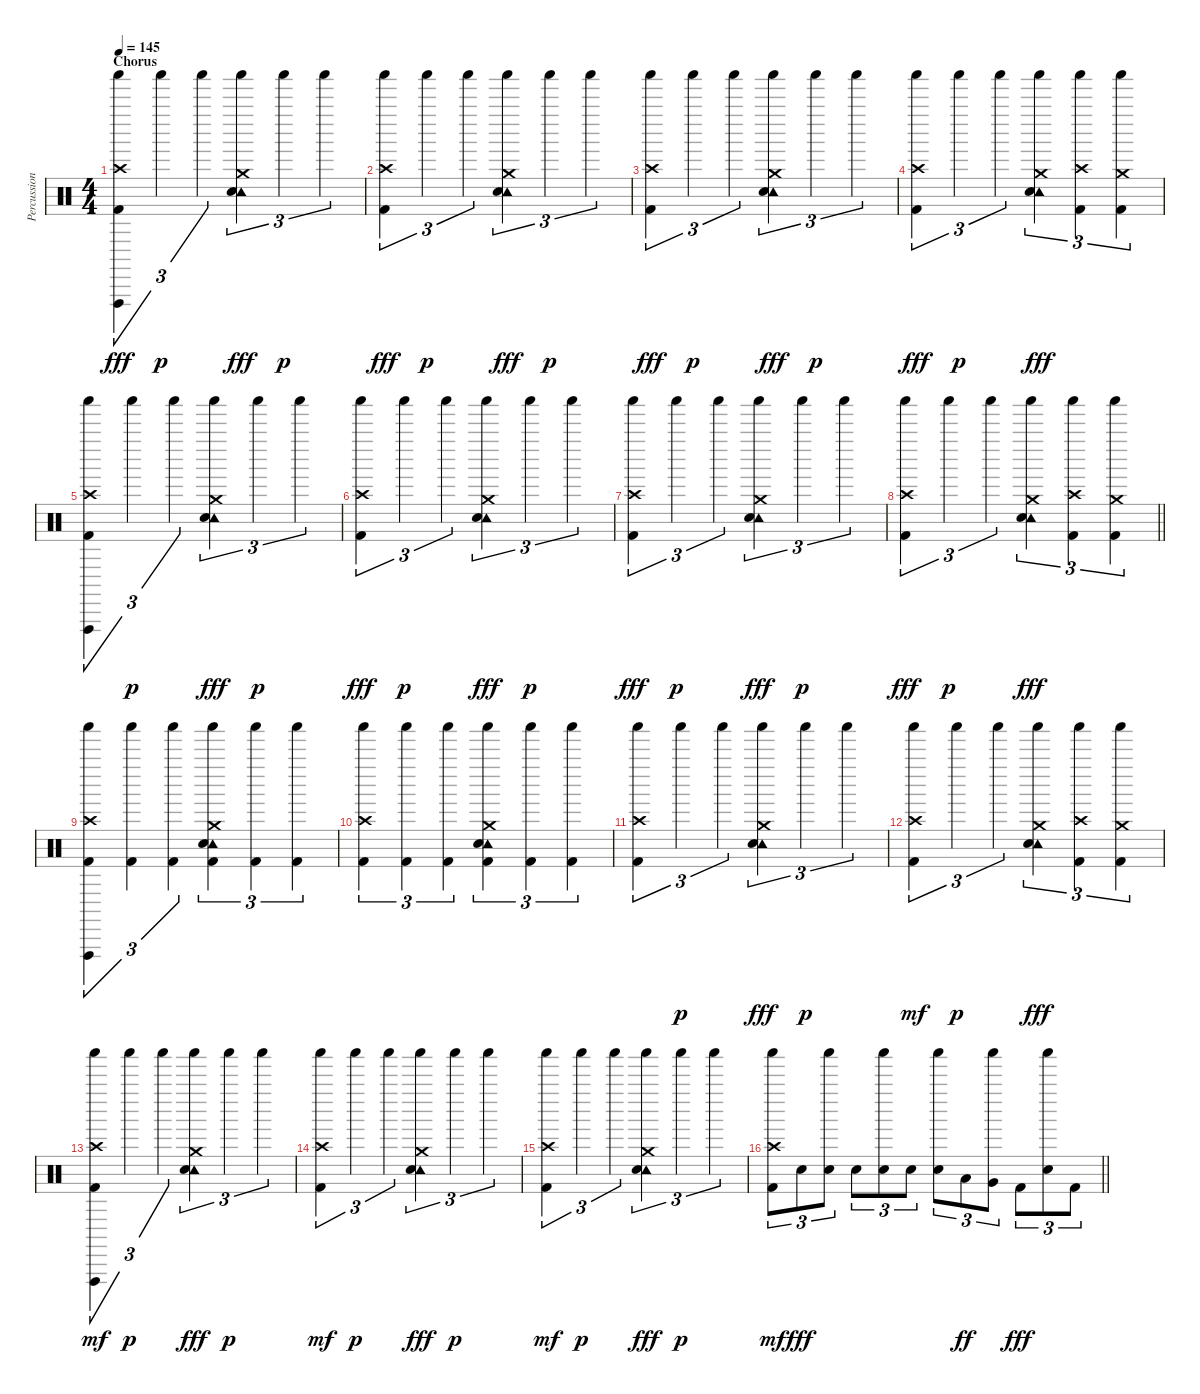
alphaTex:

\track ("Percussion" "Percussion") {instrument percussion}
\staff {score}
\articulation defaults
\ts (4 4)
\section ("" "Chorus")
\tempo 145
\clef neutral
\ks c
("Shaker (hit)" "Crash high (hit)" "Vibraslap (hit)" "Kick (hit) 2").4{tu (3 2) dy fff} "Shaker (hit)".4{tu (3 2) dy p} "Shaker (hit)".4{tu (3 2)} ("Shaker (hit)" "Crash medium (hit)" "Tambourine (hit)" "Electric Snare (hit)").4{tu (3 2) dy fff} "Shaker (hit)".4{tu (3 2) dy p} "Shaker (hit)".4{tu (3 2)} |
("Shaker (hit)" "Crash high (hit)" "Kick (hit) 2").4{tu (3 2) dy fff} "Shaker (hit)".4{tu (3 2) dy p} "Shaker (hit)".4{tu (3 2)} ("Shaker (hit)" "Crash medium (hit)" "Tambourine (hit)" "Electric Snare (hit)").4{tu (3 2) dy fff} "Shaker (hit)".4{tu (3 2) dy p} "Shaker (hit)".4{tu (3 2)} |
("Shaker (hit)" "Crash high (hit)" "Kick (hit) 2").4{tu (3 2) dy fff} "Shaker (hit)".4{tu (3 2) dy p} "Shaker (hit)".4{tu (3 2)} ("Shaker (hit)" "Crash medium (hit)" "Tambourine (hit)" "Electric Snare (hit)").4{tu (3 2) dy fff} "Shaker (hit)".4{tu (3 2) dy p} "Shaker (hit)".4{tu (3 2)} |
("Shaker (hit)" "Crash high (hit)" "Kick (hit) 2").4{tu (3 2) dy fff} "Shaker (hit)".4{tu (3 2) dy p} "Shaker (hit)".4{tu (3 2)} ("Shaker (hit)" "Crash medium (hit)" "Tambourine (hit)" "Electric Snare (hit)").4{tu (3 2) dy fff} ("Shaker (hit)" "Crash high (hit)" "Kick (hit) 2").4{tu (3 2)} ("Shaker (hit)" "Crash medium (hit)" "Kick (hit) 2").4{tu (3 2)} |
("Shaker (hit)" "Crash high (hit)" "Vibraslap (hit)" "Kick (hit) 2").4{tu (3 2)} "Shaker (hit)".4{tu (3 2) dy p} "Shaker (hit)".4{tu (3 2)} ("Shaker (hit)" "Crash medium (hit)" "Tambourine (hit)" "Electric Snare (hit)").4{tu (3 2) dy fff} "Shaker (hit)".4{tu (3 2) dy p} "Shaker (hit)".4{tu (3 2)} |
("Shaker (hit)" "Crash high (hit)" "Kick (hit) 2").4{tu (3 2) dy fff} "Shaker (hit)".4{tu (3 2) dy p} "Shaker (hit)".4{tu (3 2)} ("Shaker (hit)" "Crash medium (hit)" "Tambourine (hit)" "Electric Snare (hit)").4{tu (3 2) dy fff} "Shaker (hit)".4{tu (3 2) dy p} "Shaker (hit)".4{tu (3 2)} |
("Shaker (hit)" "Crash high (hit)" "Kick (hit) 2").4{tu (3 2) dy fff} "Shaker (hit)".4{tu (3 2) dy p} "Shaker (hit)".4{tu (3 2)} ("Shaker (hit)" "Crash medium (hit)" "Tambourine (hit)" "Electric Snare (hit)").4{tu (3 2) dy fff} "Shaker (hit)".4{tu (3 2) dy p} "Shaker (hit)".4{tu (3 2)} |
\barLineRight lightlight
("Shaker (hit)" "Crash high (hit)" "Kick (hit) 2").4{tu (3 2) dy fff} "Shaker (hit)".4{tu (3 2) dy p} "Shaker (hit)".4{tu (3 2)} ("Shaker (hit)" "Crash medium (hit)" "Tambourine (hit)" "Electric Snare (hit)").4{tu (3 2) dy fff} ("Shaker (hit)" "Crash high (hit)" "Kick (hit) 2").4{tu (3 2)} ("Shaker (hit)" "Crash medium (hit)" "Kick (hit) 2").4{tu (3 2)} |
("Shaker (hit)" "Crash high (hit)" "Vibraslap (hit)" "Kick (hit) 2").4{tu (3 2)} ("Shaker (hit)" "Kick (hit) 2").4{tu (3 2)} ("Shaker (hit)" "Kick (hit) 2").4{tu (3 2)} ("Shaker (hit)" "Crash medium (hit)" "Tambourine (hit)" "Electric Snare (hit)" "Kick (hit) 2").4{tu (3 2)} ("Shaker (hit)" "Kick (hit) 2").4{tu (3 2)} ("Shaker (hit)" "Kick (hit) 2").4{tu (3 2)} |
("Shaker (hit)" "Crash high (hit)" "Kick (hit) 2").4{tu (3 2)} ("Shaker (hit)" "Kick (hit) 2").4{tu (3 2)} ("Shaker (hit)" "Kick (hit) 2").4{tu (3 2)} ("Shaker (hit)" "Crash medium (hit)" "Tambourine (hit)" "Electric Snare (hit)" "Kick (hit) 2").4{tu (3 2)} ("Shaker (hit)" "Kick (hit) 2").4{tu (3 2)} ("Shaker (hit)" "Kick (hit) 2").4{tu (3 2)} |
("Shaker (hit)" "Crash high (hit)" "Kick (hit) 2").4{tu (3 2)} "Shaker (hit)".4{tu (3 2) dy p} "Shaker (hit)".4{tu (3 2)} ("Shaker (hit)" "Crash medium (hit)" "Tambourine (hit)" "Electric Snare (hit)").4{tu (3 2) dy fff} "Shaker (hit)".4{tu (3 2) dy p} "Shaker (hit)".4{tu (3 2)} |
("Shaker (hit)" "Crash high (hit)" "Kick (hit) 2").4{tu (3 2) dy mf} "Shaker (hit)".4{tu (3 2) dy p} "Shaker (hit)".4{tu (3 2)} ("Shaker (hit)" "Crash medium (hit)" "Tambourine (hit)" "Electric Snare (hit)").4{tu (3 2) dy fff} ("Shaker (hit)" "Crash high (hit)" "Kick (hit) 2").4{tu (3 2)} ("Shaker (hit)" "Crash medium (hit)" "Kick (hit) 2").4{tu (3 2)} |
("Shaker (hit)" "Crash high (hit)" "Vibraslap (hit)" "Kick (hit) 2").4{tu (3 2) dy mf} "Shaker (hit)".4{tu (3 2) dy p} "Shaker (hit)".4{tu (3 2)} ("Shaker (hit)" "Crash medium (hit)" "Tambourine (hit)" "Electric Snare (hit)").4{tu (3 2) dy fff} "Shaker (hit)".4{tu (3 2) dy p} "Shaker (hit)".4{tu (3 2)} |
("Shaker (hit)" "Crash high (hit)" "Kick (hit) 2").4{tu (3 2) dy mf} "Shaker (hit)".4{tu (3 2) dy p} "Shaker (hit)".4{tu (3 2)} ("Shaker (hit)" "Crash medium (hit)" "Tambourine (hit)" "Electric Snare (hit)").4{tu (3 2) dy fff} "Shaker (hit)".4{tu (3 2) dy p} "Shaker (hit)".4{tu (3 2)} |
("Shaker (hit)" "Crash high (hit)" "Kick (hit) 2").4{tu (3 2) dy mf} "Shaker (hit)".4{tu (3 2) dy p} "Shaker (hit)".4{tu (3 2)} ("Shaker (hit)" "Crash medium (hit)" "Tambourine (hit)" "Electric Snare (hit)").4{tu (3 2) dy fff} "Shaker (hit)".4{tu (3 2) dy p} "Shaker (hit)".4{tu (3 2)} |
\barLineRight lightlight
("Shaker (hit)" "Crash high (hit)" "Kick (hit) 2").8{tu (3 2) dy mf} "Electric Snare (hit)".8{tu (3 2) dy fff} ("Shaker (hit)" "Electric Snare (hit)").8{tu (3 2)} "Electric Snare (hit)".8{tu (3 2)} ("Shaker (hit)" "Electric Snare (hit)").8{tu (3 2)} "Electric Snare (hit)".8{tu (3 2)} ("Shaker (hit)" "Electric Snare (hit)").8{tu (3 2)} "Low Tom (hit)".8{tu (3 2) dy ff} ("Shaker (hit)" "Very Low Tom (hit)").8{tu (3 2)} "Kick (hit) 2".8{tu (3 2) dy fff} ("Shaker (hit)" "Electric Snare (hit)").8{tu (3 2)} "Kick (hit) 2".8{tu (3 2)}
